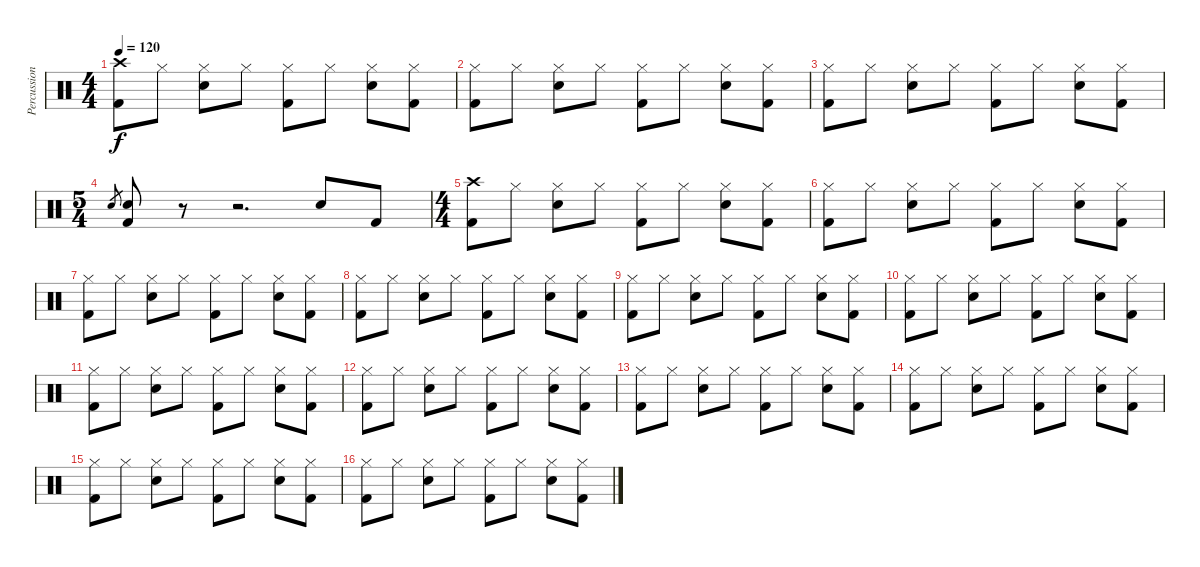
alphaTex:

\track ("Percussions" "Percussion") {instrument percussion}
\staff {score}
\articulation defaults
\ts (4 4)
\tempo 120
\clef neutral
\ks c
("Crash high (hit)" "Kick (hit) 2").8{dy f} "Hi-Hat (closed)".8 ("Hi-Hat (closed)" "Electric Snare (hit)").8 "Hi-Hat (closed)".8 ("Hi-Hat (closed)" "Kick (hit) 2").8 "Hi-Hat (closed)".8 ("Hi-Hat (closed)" "Electric Snare (hit)").8 ("Hi-Hat (closed)" "Kick (hit) 2").8 |
("Hi-Hat (closed)" "Kick (hit) 2").8 "Hi-Hat (closed)".8 ("Hi-Hat (closed)" "Electric Snare (hit)").8 "Hi-Hat (closed)".8 ("Hi-Hat (closed)" "Kick (hit) 2").8 "Hi-Hat (closed)".8 ("Hi-Hat (closed)" "Electric Snare (hit)").8 ("Hi-Hat (closed)" "Kick (hit) 2").8 |
("Hi-Hat (closed)" "Kick (hit) 2").8 "Hi-Hat (closed)".8 ("Hi-Hat (closed)" "Electric Snare (hit)").8 "Hi-Hat (closed)".8 ("Hi-Hat (closed)" "Kick (hit) 2").8 "Hi-Hat (closed)".8 ("Hi-Hat (closed)" "Electric Snare (hit)").8 ("Hi-Hat (closed)" "Kick (hit) 2").8 |
\ts (5 4)
"Electric Snare (hit)".8{gr} ("Electric Snare (hit)" "Kick (hit) 2").8 r.8 r.2{d} "Electric Snare (hit)".8 "Kick (hit) 2".8 |
\ts (4 4)
("Crash high (hit)" "Kick (hit) 2").8 "Hi-Hat (closed)".8 ("Hi-Hat (closed)" "Electric Snare (hit)").8 "Hi-Hat (closed)".8 ("Hi-Hat (closed)" "Kick (hit) 2").8 "Hi-Hat (closed)".8 ("Hi-Hat (closed)" "Electric Snare (hit)").8 ("Hi-Hat (closed)" "Kick (hit) 2").8 |
("Hi-Hat (closed)" "Kick (hit) 2").8 "Hi-Hat (closed)".8 ("Hi-Hat (closed)" "Electric Snare (hit)").8 "Hi-Hat (closed)".8 ("Hi-Hat (closed)" "Kick (hit) 2").8 "Hi-Hat (closed)".8 ("Hi-Hat (closed)" "Electric Snare (hit)").8 ("Hi-Hat (closed)" "Kick (hit) 2").8 |
("Hi-Hat (closed)" "Kick (hit) 2").8 "Hi-Hat (closed)".8 ("Hi-Hat (closed)" "Electric Snare (hit)").8 "Hi-Hat (closed)".8 ("Hi-Hat (closed)" "Kick (hit) 2").8 "Hi-Hat (closed)".8 ("Hi-Hat (closed)" "Electric Snare (hit)").8 ("Hi-Hat (closed)" "Kick (hit) 2").8 |
("Hi-Hat (closed)" "Kick (hit) 2").8 "Hi-Hat (closed)".8 ("Hi-Hat (closed)" "Electric Snare (hit)").8 "Hi-Hat (closed)".8 ("Hi-Hat (closed)" "Kick (hit) 2").8 "Hi-Hat (closed)".8 ("Hi-Hat (closed)" "Electric Snare (hit)").8 ("Hi-Hat (closed)" "Kick (hit) 2").8 |
("Hi-Hat (closed)" "Kick (hit) 2").8 "Hi-Hat (closed)".8 ("Hi-Hat (closed)" "Electric Snare (hit)").8 "Hi-Hat (closed)".8 ("Hi-Hat (closed)" "Kick (hit) 2").8 "Hi-Hat (closed)".8 ("Hi-Hat (closed)" "Electric Snare (hit)").8 ("Hi-Hat (closed)" "Kick (hit) 2").8 |
("Hi-Hat (closed)" "Kick (hit) 2").8 "Hi-Hat (closed)".8 ("Hi-Hat (closed)" "Electric Snare (hit)").8 "Hi-Hat (closed)".8 ("Hi-Hat (closed)" "Kick (hit) 2").8 "Hi-Hat (closed)".8 ("Hi-Hat (closed)" "Electric Snare (hit)").8 ("Hi-Hat (closed)" "Kick (hit) 2").8 |
("Hi-Hat (closed)" "Kick (hit) 2").8 "Hi-Hat (closed)".8 ("Hi-Hat (closed)" "Electric Snare (hit)").8 "Hi-Hat (closed)".8 ("Hi-Hat (closed)" "Kick (hit) 2").8 "Hi-Hat (closed)".8 ("Hi-Hat (closed)" "Electric Snare (hit)").8 ("Hi-Hat (closed)" "Kick (hit) 2").8 |
("Hi-Hat (closed)" "Kick (hit) 2").8 "Hi-Hat (closed)".8 ("Hi-Hat (closed)" "Electric Snare (hit)").8 "Hi-Hat (closed)".8 ("Hi-Hat (closed)" "Kick (hit) 2").8 "Hi-Hat (closed)".8 ("Hi-Hat (closed)" "Electric Snare (hit)").8 ("Hi-Hat (closed)" "Kick (hit) 2").8 |
("Hi-Hat (closed)" "Kick (hit) 2").8 "Hi-Hat (closed)".8 ("Hi-Hat (closed)" "Electric Snare (hit)").8 "Hi-Hat (closed)".8 ("Hi-Hat (closed)" "Kick (hit) 2").8 "Hi-Hat (closed)".8 ("Hi-Hat (closed)" "Electric Snare (hit)").8 ("Hi-Hat (closed)" "Kick (hit) 2").8 |
("Hi-Hat (closed)" "Kick (hit) 2").8 "Hi-Hat (closed)".8 ("Hi-Hat (closed)" "Electric Snare (hit)").8 "Hi-Hat (closed)".8 ("Hi-Hat (closed)" "Kick (hit) 2").8 "Hi-Hat (closed)".8 ("Hi-Hat (closed)" "Electric Snare (hit)").8 ("Hi-Hat (closed)" "Kick (hit) 2").8 |
("Hi-Hat (closed)" "Kick (hit) 2").8 "Hi-Hat (closed)".8 ("Hi-Hat (closed)" "Electric Snare (hit)").8 "Hi-Hat (closed)".8 ("Hi-Hat (closed)" "Kick (hit) 2").8 "Hi-Hat (closed)".8 ("Hi-Hat (closed)" "Electric Snare (hit)").8 ("Hi-Hat (closed)" "Kick (hit) 2").8 |
("Hi-Hat (closed)" "Kick (hit) 2").8 "Hi-Hat (closed)".8 ("Hi-Hat (closed)" "Electric Snare (hit)").8 "Hi-Hat (closed)".8 ("Hi-Hat (closed)" "Kick (hit) 2").8 "Hi-Hat (closed)".8 ("Hi-Hat (closed)" "Electric Snare (hit)").8 ("Hi-Hat (closed)" "Kick (hit) 2").8
